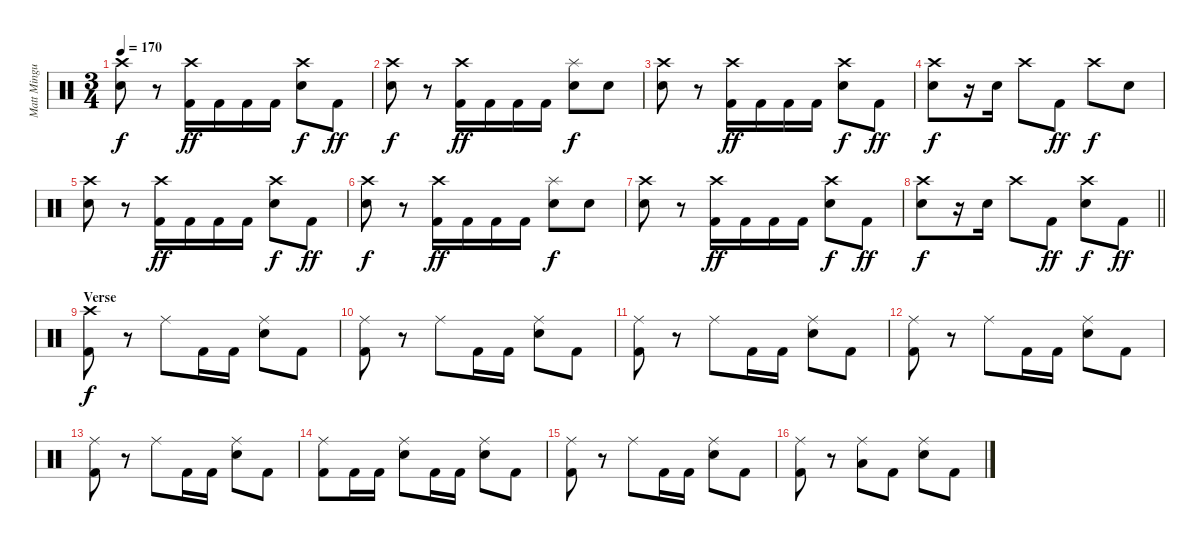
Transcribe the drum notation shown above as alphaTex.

\track ("Matt Mingus (Drum Kit)" "Matt Mingu") {instrument percussion}
\staff {score}
\articulation defaults
\ts (3 4)
\tempo 170
\clef neutral
\ks c
("Crash high (hit)" "Electric Snare (hit)").8{dy f} r.8 ("Crash high (hit)" "Kick (hit) 2").16{dy ff} "Kick (hit) 2".16 "Kick (hit) 2".16 "Kick (hit) 2".16 ("Crash high (hit)" "Electric Snare (hit)").8{dy f} "Kick (hit) 2".8{dy ff} |
("Crash high (hit)" "Electric Snare (hit)").8{dy f} r.8 ("Crash high (hit)" "Kick (hit) 2").16{dy ff} "Kick (hit) 2".16 "Kick (hit) 2".16 "Kick (hit) 2".16 ("Splash (hit)" "Electric Snare (hit)").8{dy f} "Electric Snare (hit)".8 |
("Crash high (hit)" "Electric Snare (hit)").8 r.8 ("Crash high (hit)" "Kick (hit) 2").16{dy ff} "Kick (hit) 2".16 "Kick (hit) 2".16 "Kick (hit) 2".16 ("Crash high (hit)" "Electric Snare (hit)").8{dy f} "Kick (hit) 2".8{dy ff} |
("Crash high (hit)" "Electric Snare (hit)").8{dy f} r.16 "Electric Snare (hit)".16 "Crash high (hit)".8 "Kick (hit) 2".8{dy ff} "Crash high (hit)".8{dy f} "Electric Snare (hit)".8 |
("Crash high (hit)" "Electric Snare (hit)").8 r.8 ("Crash high (hit)" "Kick (hit) 2").16{dy ff} "Kick (hit) 2".16 "Kick (hit) 2".16 "Kick (hit) 2".16 ("Crash high (hit)" "Electric Snare (hit)").8{dy f} "Kick (hit) 2".8{dy ff} |
("Crash high (hit)" "Electric Snare (hit)").8{dy f} r.8 ("Crash high (hit)" "Kick (hit) 2").16{dy ff} "Kick (hit) 2".16 "Kick (hit) 2".16 "Kick (hit) 2".16 ("Splash (hit)" "Electric Snare (hit)").8{dy f} "Electric Snare (hit)".8 |
("Crash high (hit)" "Electric Snare (hit)").8 r.8 ("Crash high (hit)" "Kick (hit) 2").16{dy ff} "Kick (hit) 2".16 "Kick (hit) 2".16 "Kick (hit) 2".16 ("Crash high (hit)" "Electric Snare (hit)").8{dy f} "Kick (hit) 2".8{dy ff} |
\barLineRight lightlight
("Crash high (hit)" "Electric Snare (hit)").8{dy f} r.16 "Electric Snare (hit)".16 "Crash high (hit)".8 "Kick (hit) 2".8{dy ff} ("Crash high (hit)" "Electric Snare (hit)").8{dy f} "Kick (hit) 2".8{dy ff} |
\section ("" "Verse")
("Crash high (hit)" "Kick (hit) 2").8{dy f} r.8 "Ride (middle)".8 "Kick (hit) 2".16 "Kick (hit) 2".16 ("Ride (middle)" "Electric Snare (hit)").8 "Kick (hit) 2".8 |
("Ride (middle)" "Kick (hit) 2").8 r.8 "Ride (middle)".8 "Kick (hit) 2".16 "Kick (hit) 2".16 ("Ride (middle)" "Electric Snare (hit)").8 "Kick (hit) 2".8 |
("Ride (middle)" "Kick (hit) 2").8 r.8 "Ride (middle)".8 "Kick (hit) 2".16 "Kick (hit) 2".16 ("Ride (middle)" "Electric Snare (hit)").8 "Kick (hit) 2".8 |
("Ride (middle)" "Kick (hit) 2").8 r.8 "Ride (middle)".8 "Kick (hit) 2".16 "Kick (hit) 2".16 ("Ride (middle)" "Electric Snare (hit)").8 "Kick (hit) 2".8 |
("Ride (middle)" "Kick (hit) 2").8 r.8 "Ride (middle)".8 "Kick (hit) 2".16 "Kick (hit) 2".16 ("Ride (middle)" "Electric Snare (hit)").8 "Kick (hit) 2".8 |
("Ride (middle)" "Kick (hit) 2").8 "Kick (hit) 2".16 "Kick (hit) 2".16 ("Ride (middle)" "Electric Snare (hit)").8 "Kick (hit) 2".16 "Kick (hit) 2".16 ("Ride (middle)" "Electric Snare (hit)").8 "Kick (hit) 2".8 |
("Ride (middle)" "Kick (hit) 2").8 r.8 "Ride (middle)".8 "Kick (hit) 2".16 "Kick (hit) 2".16 ("Ride (middle)" "Electric Snare (hit)").8 "Kick (hit) 2".8 |
("Ride (middle)" "Kick (hit) 2").8 r.8 ("Ride (middle)" "Low Tom (hit)").8 "Kick (hit) 2".8 ("Ride (middle)" "Electric Snare (hit)").8 "Kick (hit) 2".8
